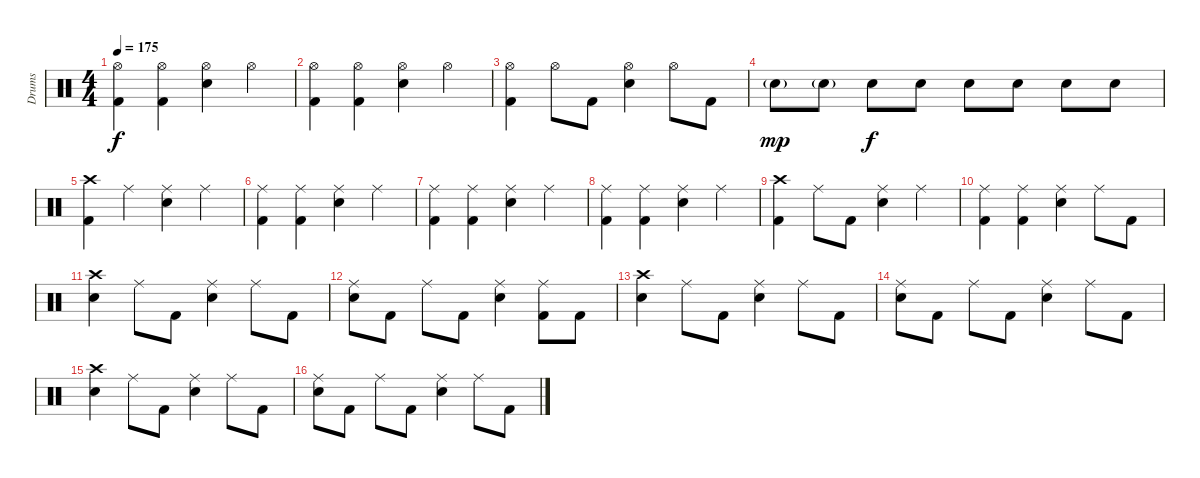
\track ("Drums" "Drums") {instrument percussion}
\staff {score}
\articulation defaults
\ts (4 4)
\tempo 175
\clef neutral
\ks c
("Hi-Hat (open)" "Kick (hit) 2").4{dy f} ("Hi-Hat (open)" "Kick (hit) 2").4 ("Hi-Hat (open)" "Snare (hit) 2").4 "Hi-Hat (open)".4 |
("Hi-Hat (open)" "Kick (hit) 2").4 ("Hi-Hat (open)" "Kick (hit) 2").4 ("Hi-Hat (open)" "Snare (hit) 2").4 "Hi-Hat (open)".4 |
("Hi-Hat (open)" "Kick (hit) 2").4 "Hi-Hat (open)".8 "Kick (hit) 2".8 ("Hi-Hat (open)" "Snare (hit) 2").4 "Hi-Hat (open)".8 "Kick (hit) 2".8 |
"Snare (hit) 2"{g}.8{dy mp} "Snare (hit) 2"{g}.8 "Snare (hit) 2".8{dy f} "Snare (hit) 2".8 "Snare (hit) 2".8 "Snare (hit) 2".8 "Snare (hit) 2".8 "Snare (hit) 2".8 |
("Crash high (hit)" "Kick (hit) 2").4 "Ride (middle)".4 ("Ride (middle)" "Snare (hit) 2").4 "Ride (middle)".4 |
("Ride (middle)" "Kick (hit) 2").4 ("Ride (middle)" "Kick (hit) 2").4 ("Ride (middle)" "Snare (hit) 2").4 "Ride (middle)".4 |
("Ride (middle)" "Kick (hit) 2").4 ("Ride (middle)" "Kick (hit) 2").4 ("Ride (middle)" "Snare (hit) 2").4 "Ride (middle)".4 |
("Ride (middle)" "Kick (hit) 2").4 ("Ride (middle)" "Kick (hit) 2").4 ("Ride (middle)" "Snare (hit) 2").4 "Ride (middle)".4 |
("Crash high (hit)" "Kick (hit) 2").4 "Ride (middle)".8 "Kick (hit) 2".8 ("Ride (middle)" "Snare (hit) 2").4 "Ride (middle)".4 |
("Ride (middle)" "Kick (hit) 2").4 ("Ride (middle)" "Kick (hit) 2").4 ("Ride (middle)" "Snare (hit) 2").4 "Ride (middle)".8 "Kick (hit) 2".8 |
("Crash high (hit)" "Snare (hit) 2").4 "Ride (middle)".8 "Kick (hit) 2".8 ("Ride (middle)" "Snare (hit) 2").4 "Ride (middle)".8 "Kick (hit) 2".8 |
("Ride (middle)" "Snare (hit) 2").8 "Kick (hit) 2".8 "Ride (middle)".8 "Kick (hit) 2".8 ("Ride (middle)" "Snare (hit) 2").4 ("Ride (middle)" "Kick (hit) 2").8 "Kick (hit) 2".8 |
("Crash high (hit)" "Snare (hit) 2").4 "Ride (middle)".8 "Kick (hit) 2".8 ("Ride (middle)" "Snare (hit) 2").4 "Ride (middle)".8 "Kick (hit) 2".8 |
("Ride (middle)" "Snare (hit) 2").8 "Kick (hit) 2".8 "Ride (middle)".8 "Kick (hit) 2".8 ("Ride (middle)" "Snare (hit) 2").4 "Ride (middle)".8 "Kick (hit) 2".8 |
("Crash high (hit)" "Snare (hit) 2").4 "Ride (middle)".8 "Kick (hit) 2".8 ("Ride (middle)" "Snare (hit) 2").4 "Ride (middle)".8 "Kick (hit) 2".8 |
("Ride (middle)" "Snare (hit) 2").8 "Kick (hit) 2".8 "Ride (middle)".8 "Kick (hit) 2".8 ("Ride (middle)" "Snare (hit) 2").4 "Ride (middle)".8 "Kick (hit) 2".8
